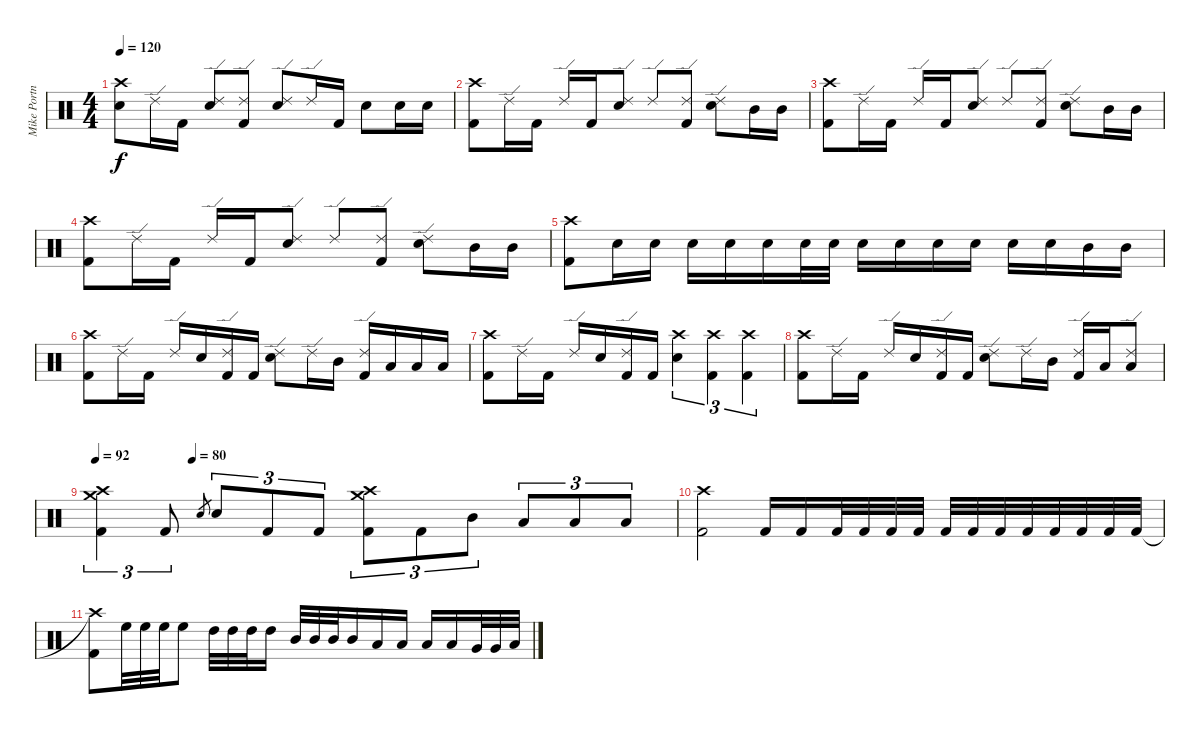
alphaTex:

\track ("Mike Portnoy" "Mike Portn") {instrument percussion}
\staff {score}
\articulation defaults
\ts (4 4)
\tempo 120
\clef neutral
\ks c
("Crash high (hit)" "Snare (hit) 2").8{dy f} "Ride (edge) 2".16 "Kick (hit) 2".16 ("Ride (edge) 2" "Snare (hit) 2").8 ("Ride (edge) 2" "Kick (hit) 2").8 ("Ride (edge) 2" "Snare (hit) 2").8 "Ride (edge) 2".16 "Kick (hit) 2".16 "Snare (hit) 2".8 "Snare (hit) 2".16 "Snare (hit) 2".16 |
("Crash high (hit)" "Kick (hit) 2").8 "Ride (edge) 2".16 "Kick (hit) 2".16 "Ride (edge) 2".16 "Kick (hit) 2".16 ("Ride (edge) 2" "Snare (hit) 2").8 "Ride (edge) 2".8 ("Ride (edge) 2" "Kick (hit) 2").8 ("Ride (edge) 2" "Snare (hit) 2").8 "Mid Tom (hit)".16 "Mid Tom (hit)".16 |
("Crash high (hit)" "Kick (hit) 2").8 "Ride (edge) 2".16 "Kick (hit) 2".16 "Ride (edge) 2".16 "Kick (hit) 2".16 ("Ride (edge) 2" "Snare (hit) 2").8 "Ride (edge) 2".8 ("Ride (edge) 2" "Kick (hit) 2").8 ("Ride (edge) 2" "Snare (hit) 2").8 "Mid Tom (hit)".16 "Mid Tom (hit)".16 |
("Crash high (hit)" "Kick (hit) 2").8 "Ride (edge) 2".16 "Kick (hit) 2".16 "Ride (edge) 2".16 "Kick (hit) 2".16 ("Ride (edge) 2" "Snare (hit) 2").8 "Ride (edge) 2".8 ("Ride (edge) 2" "Kick (hit) 2").8 ("Ride (edge) 2" "Snare (hit) 2").8 "Mid Tom (hit)".16 "Mid Tom (hit)".16 |
("Crash high (hit)" "Kick (hit) 2").8 "Snare (hit) 2".16 "Snare (hit) 2".16 "Snare (hit) 2".16 "Snare (hit) 2".16 "Snare (hit) 2".16 "Snare (hit) 2".32 "Snare (hit) 2".32 "Snare (hit) 2".16 "Snare (hit) 2".16 "Snare (hit) 2".16 "Snare (hit) 2".16 "Snare (hit) 2".16 "Snare (hit) 2".16 "Mid Tom (hit)".16 "Mid Tom (hit)".16 |
("Crash high (hit)" "Kick (hit) 2").8 "Ride (edge) 2".16 "Kick (hit) 2".16 "Ride (edge) 2".16 "Snare (hit) 2".16 ("Ride (edge) 2" "Kick (hit) 2").16 "Kick (hit) 2".16 ("Ride (edge) 2" "Snare (hit) 2").8 "Ride (edge) 2".16 "Mid Tom (hit)".16 ("Ride (edge) 2" "Kick (hit) 2").16 "Low Tom (hit)".16 "Low Tom (hit)".16 "Low Tom (hit)".16 |
("Crash high (hit)" "Kick (hit) 2").8 "Ride (edge) 2".16 "Kick (hit) 2".16 "Ride (edge) 2".16 "Snare (hit) 2".16 ("Ride (edge) 2" "Kick (hit) 2").16 "Kick (hit) 2".16 ("Crash high (hit)" "Snare (hit) 2").4{tu (3 2)} ("Crash high (hit)" "Kick (hit) 2").4{tu (3 2)} ("Crash high (hit)" "Kick (hit) 2").4{tu (3 2)} |
("Crash high (hit)" "Kick (hit) 2").8 "Ride (edge) 2".16 "Kick (hit) 2".16 "Ride (edge) 2".16 "Snare (hit) 2".16 ("Ride (edge) 2" "Kick (hit) 2").16 "Kick (hit) 2".16 ("Ride (edge) 2" "Snare (hit) 2").8 "Ride (edge) 2".16 "Mid Tom (hit)".16 ("Ride (edge) 2" "Kick (hit) 2").16 "Low Tom (hit)".16 ("Ride (edge) 2" "Low Tom (hit)").8 |
\tempo 92
\tempo (80 0.16666666666666666)
("Crash high (hit)" "Crash medium (hit)" "Kick (hit) 2").4{tu (3 2)} "Kick (hit) 2".8{tu (3 2)} "Snare (hit) 2".8{gr} "Snare (hit) 2".8{tu (3 2)} "Kick (hit) 2".8{tu (3 2)} "Kick (hit) 2".8{tu (3 2)} ("Crash high (hit)" "Crash medium (hit)" "Kick (hit) 2").8{tu (3 2)} "Kick (hit) 2".8{tu (3 2)} "Mid Tom (hit)".8{tu (3 2)} "Low Tom (hit)".8{tu (3 2)} "Low Floor Tom (hit)".8{tu (3 2)} "Low Floor Tom (hit)".8{tu (3 2)} |
("Crash high (hit)" "Kick (hit) 2").2 "Kick (hit) 2".16 "Kick (hit) 2".16 "Kick (hit) 2".32 "Kick (hit) 2".32 "Kick (hit) 2".32 "Kick (hit) 2".32 "Kick (hit) 2".32 "Kick (hit) 2".32 "Kick (hit) 2".32 "Kick (hit) 2".32 "Kick (hit) 2".32 "Kick (hit) 2".32 "Kick (hit) 2".32 "Kick (hit) 2".32 |
("Crash high (hit)"{t} "Kick (hit) 2").8 "High Floor Tom (hit)".32 "High Floor Tom (hit)".32 "High Floor Tom (hit)".32 "High Floor Tom (hit)".8 "High Tom (hit)".32 "High Tom (hit)".32 "High Tom (hit)".32 "High Tom (hit)".16 "Mid Tom (hit)".32 "Mid Tom (hit)".32 "Mid Tom (hit)".32 "Mid Tom (hit)".16 "Low Tom (hit)".16 "Low Tom (hit)".16 "Low Tom (hit)".16 "Low Tom (hit)".16 "Very Low Tom (hit)".32 "Very Low Tom (hit)".32 "Low Floor Tom (hit)".32
